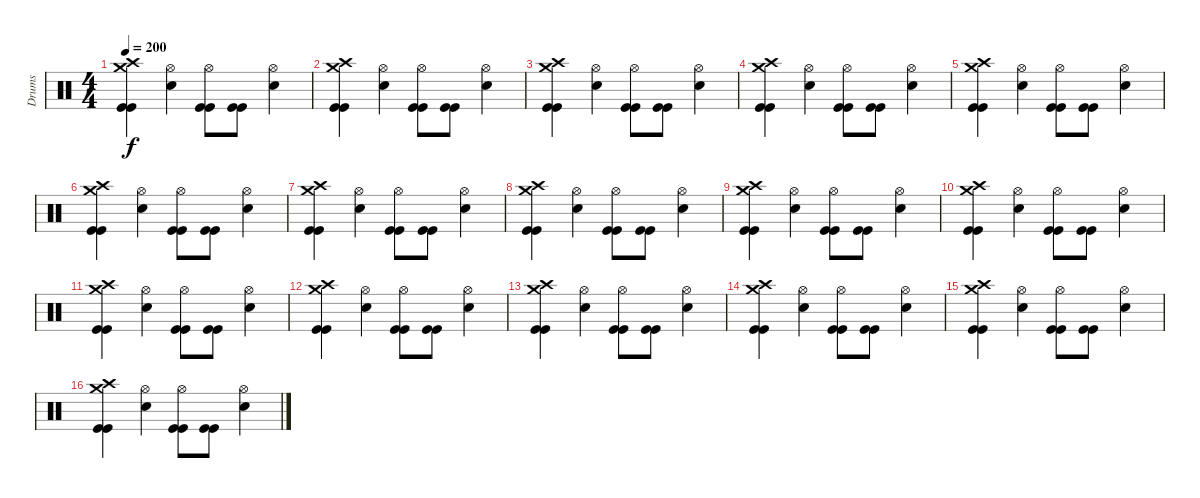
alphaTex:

\track ("Drums" "Drums") {instrument percussion}
\staff {score}
\articulation defaults
\ts (4 4)
\tempo 200
\clef neutral
\ks c
("Crash high (hit)" "Crash medium (hit)" "Kick (hit)" "Kick (hit)").4{dy f} ("Hi-Hat (open)" "Electric Snare (hit)").4 ("Hi-Hat (open)" "Kick (hit)" "Kick (hit)").8 ("Kick (hit)" "Kick (hit)").8 ("Hi-Hat (open)" "Electric Snare (hit)").4 |
("Crash high (hit)" "Crash medium (hit)" "Kick (hit)" "Kick (hit)").4 ("Hi-Hat (open)" "Electric Snare (hit)").4 ("Hi-Hat (open)" "Kick (hit)" "Kick (hit)").8 ("Kick (hit)" "Kick (hit)").8 ("Hi-Hat (open)" "Electric Snare (hit)").4 |
("Crash high (hit)" "Crash medium (hit)" "Kick (hit)" "Kick (hit)").4 ("Hi-Hat (open)" "Electric Snare (hit)").4 ("Hi-Hat (open)" "Kick (hit)" "Kick (hit)").8 ("Kick (hit)" "Kick (hit)").8 ("Hi-Hat (open)" "Electric Snare (hit)").4 |
("Crash high (hit)" "Crash medium (hit)" "Kick (hit)" "Kick (hit)").4 ("Hi-Hat (open)" "Electric Snare (hit)").4 ("Hi-Hat (open)" "Kick (hit)" "Kick (hit)").8 ("Kick (hit)" "Kick (hit)").8 ("Hi-Hat (open)" "Electric Snare (hit)").4 |
("Crash high (hit)" "Crash medium (hit)" "Kick (hit)" "Kick (hit)").4 ("Hi-Hat (open)" "Electric Snare (hit)").4 ("Hi-Hat (open)" "Kick (hit)" "Kick (hit)").8 ("Kick (hit)" "Kick (hit)").8 ("Hi-Hat (open)" "Electric Snare (hit)").4 |
("Crash high (hit)" "Crash medium (hit)" "Kick (hit)" "Kick (hit)").4 ("Hi-Hat (open)" "Electric Snare (hit)").4 ("Hi-Hat (open)" "Kick (hit)" "Kick (hit)").8 ("Kick (hit)" "Kick (hit)").8 ("Hi-Hat (open)" "Electric Snare (hit)").4 |
("Crash high (hit)" "Crash medium (hit)" "Kick (hit)" "Kick (hit)").4 ("Hi-Hat (open)" "Electric Snare (hit)").4 ("Hi-Hat (open)" "Kick (hit)" "Kick (hit)").8 ("Kick (hit)" "Kick (hit)").8 ("Hi-Hat (open)" "Electric Snare (hit)").4 |
("Crash high (hit)" "Crash medium (hit)" "Kick (hit)" "Kick (hit)").4 ("Hi-Hat (open)" "Electric Snare (hit)").4 ("Hi-Hat (open)" "Kick (hit)" "Kick (hit)").8 ("Kick (hit)" "Kick (hit)").8 ("Hi-Hat (open)" "Electric Snare (hit)").4 |
("Crash high (hit)" "Crash medium (hit)" "Kick (hit)" "Kick (hit)").4 ("Hi-Hat (open)" "Electric Snare (hit)").4 ("Hi-Hat (open)" "Kick (hit)" "Kick (hit)").8 ("Kick (hit)" "Kick (hit)").8 ("Hi-Hat (open)" "Electric Snare (hit)").4 |
("Crash high (hit)" "Crash medium (hit)" "Kick (hit)" "Kick (hit)").4 ("Hi-Hat (open)" "Electric Snare (hit)").4 ("Hi-Hat (open)" "Kick (hit)" "Kick (hit)").8 ("Kick (hit)" "Kick (hit)").8 ("Hi-Hat (open)" "Electric Snare (hit)").4 |
("Crash high (hit)" "Crash medium (hit)" "Kick (hit)" "Kick (hit)").4 ("Hi-Hat (open)" "Electric Snare (hit)").4 ("Hi-Hat (open)" "Kick (hit)" "Kick (hit)").8 ("Kick (hit)" "Kick (hit)").8 ("Hi-Hat (open)" "Electric Snare (hit)").4 |
("Crash high (hit)" "Crash medium (hit)" "Kick (hit)" "Kick (hit)").4 ("Hi-Hat (open)" "Electric Snare (hit)").4 ("Hi-Hat (open)" "Kick (hit)" "Kick (hit)").8 ("Kick (hit)" "Kick (hit)").8 ("Hi-Hat (open)" "Electric Snare (hit)").4 |
("Crash high (hit)" "Crash medium (hit)" "Kick (hit)" "Kick (hit)").4 ("Hi-Hat (open)" "Electric Snare (hit)").4 ("Hi-Hat (open)" "Kick (hit)" "Kick (hit)").8 ("Kick (hit)" "Kick (hit)").8 ("Hi-Hat (open)" "Electric Snare (hit)").4 |
("Crash high (hit)" "Crash medium (hit)" "Kick (hit)" "Kick (hit)").4 ("Hi-Hat (open)" "Electric Snare (hit)").4 ("Hi-Hat (open)" "Kick (hit)" "Kick (hit)").8 ("Kick (hit)" "Kick (hit)").8 ("Hi-Hat (open)" "Electric Snare (hit)").4 |
("Crash high (hit)" "Crash medium (hit)" "Kick (hit)" "Kick (hit)").4 ("Hi-Hat (open)" "Electric Snare (hit)").4 ("Hi-Hat (open)" "Kick (hit)" "Kick (hit)").8 ("Kick (hit)" "Kick (hit)").8 ("Hi-Hat (open)" "Electric Snare (hit)").4 |
("Crash high (hit)" "Crash medium (hit)" "Kick (hit)" "Kick (hit)").4 ("Hi-Hat (open)" "Electric Snare (hit)").4 ("Hi-Hat (open)" "Kick (hit)" "Kick (hit)").8 ("Kick (hit)" "Kick (hit)").8 ("Hi-Hat (open)" "Electric Snare (hit)").4
